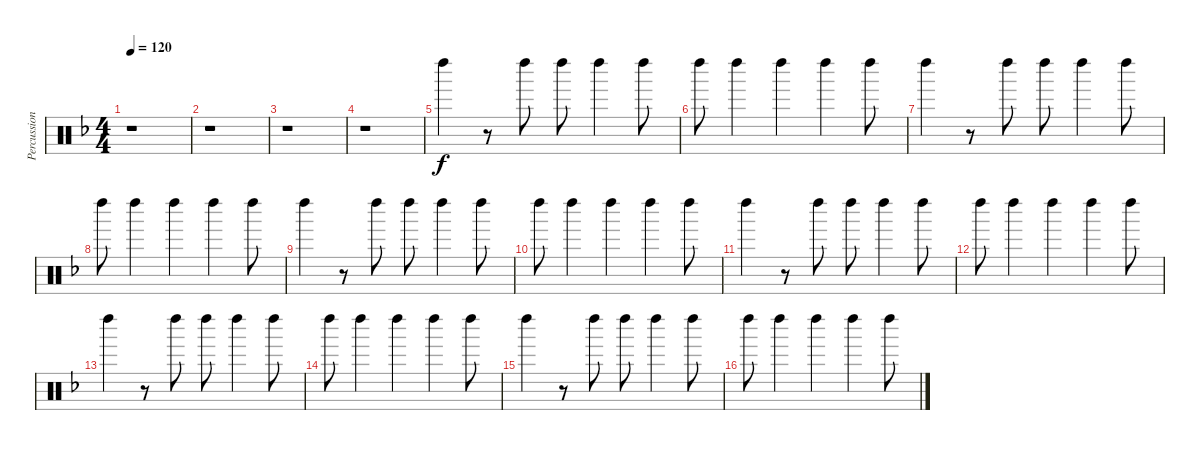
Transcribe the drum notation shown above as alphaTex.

\track ("Percussion" "Percussion") {instrument percussion}
\staff {score}
\articulation defaults
\ts (4 4)
\tempo 120
\clef neutral
\ks f
r.1{dy f} |
r.1 |
r.1 |
r.1 |
"Left Maraca (hit)".4 r.8 "Left Maraca (hit)".8 "Left Maraca (hit)".8 "Left Maraca (hit)".4 "Left Maraca (hit)".8 |
"Left Maraca (hit)".8 "Left Maraca (hit)".4 "Left Maraca (hit)".4 "Left Maraca (hit)".4 "Left Maraca (hit)".8 |
"Left Maraca (hit)".4 r.8 "Left Maraca (hit)".8 "Left Maraca (hit)".8 "Left Maraca (hit)".4 "Left Maraca (hit)".8 |
"Left Maraca (hit)".8 "Left Maraca (hit)".4 "Left Maraca (hit)".4 "Left Maraca (hit)".4 "Left Maraca (hit)".8 |
"Left Maraca (hit)".4 r.8 "Left Maraca (hit)".8 "Left Maraca (hit)".8 "Left Maraca (hit)".4 "Left Maraca (hit)".8 |
"Left Maraca (hit)".8 "Left Maraca (hit)".4 "Left Maraca (hit)".4 "Left Maraca (hit)".4 "Left Maraca (hit)".8 |
"Left Maraca (hit)".4 r.8 "Left Maraca (hit)".8 "Left Maraca (hit)".8 "Left Maraca (hit)".4 "Left Maraca (hit)".8 |
"Left Maraca (hit)".8 "Left Maraca (hit)".4 "Left Maraca (hit)".4 "Left Maraca (hit)".4 "Left Maraca (hit)".8 |
"Left Maraca (hit)".4 r.8 "Left Maraca (hit)".8 "Left Maraca (hit)".8 "Left Maraca (hit)".4 "Left Maraca (hit)".8 |
"Left Maraca (hit)".8 "Left Maraca (hit)".4 "Left Maraca (hit)".4 "Left Maraca (hit)".4 "Left Maraca (hit)".8 |
"Left Maraca (hit)".4 r.8 "Left Maraca (hit)".8 "Left Maraca (hit)".8 "Left Maraca (hit)".4 "Left Maraca (hit)".8 |
"Left Maraca (hit)".8 "Left Maraca (hit)".4 "Left Maraca (hit)".4 "Left Maraca (hit)".4 "Left Maraca (hit)".8
